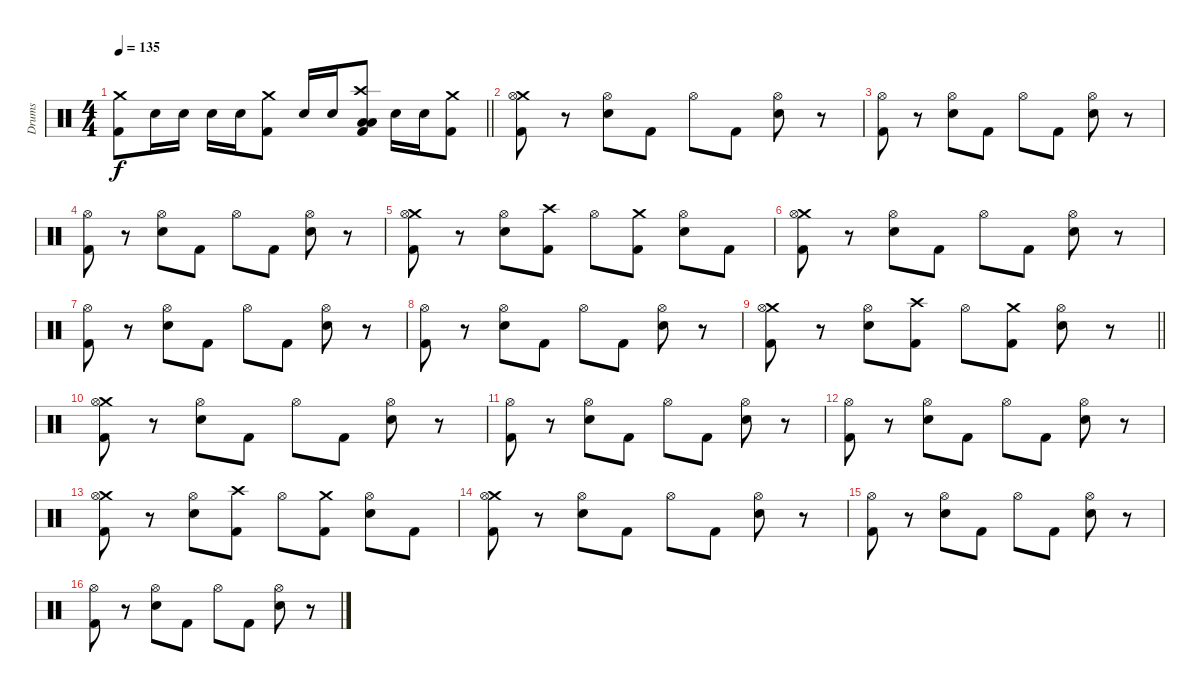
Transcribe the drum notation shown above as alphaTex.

\track ("Drums" "Drums") {instrument percussion}
\staff {score}
\articulation defaults
\ts (4 4)
\tempo 135
\clef neutral
\barLineRight lightlight
\ks c
("Crash medium (hit)" "Kick (hit) 2").8{dy f} "Electric Snare (hit)".16 "Electric Snare (hit)".16 "Electric Snare (hit)".16 "Electric Snare (hit)".16 ("Crash medium (hit)" "Kick (hit) 2").8 "Electric Snare (hit)".16 "Electric Snare (hit)".16 ("Crash high (hit)" "Kick (hit) 2" "Low Tom (hit)" "Low Floor Tom (hit)").8 "Electric Snare (hit)".16 "Electric Snare (hit)".16 ("Crash medium (hit)" "Kick (hit) 2").8 |
\section ("" "")
("Crash medium (hit)" "Hi-Hat (open)" "Kick (hit) 2").8 r.8 ("Hi-Hat (open)" "Electric Snare (hit)").8 "Kick (hit) 2".8 "Hi-Hat (open)".8 "Kick (hit) 2".8 ("Hi-Hat (open)" "Electric Snare (hit)").8 r.8 |
("Hi-Hat (open)" "Kick (hit) 2").8 r.8 ("Hi-Hat (open)" "Electric Snare (hit)").8 "Kick (hit) 2".8 "Hi-Hat (open)".8 "Kick (hit) 2".8 ("Hi-Hat (open)" "Electric Snare (hit)").8 r.8 |
("Hi-Hat (open)" "Kick (hit) 2").8 r.8 ("Hi-Hat (open)" "Electric Snare (hit)").8 "Kick (hit) 2".8 "Hi-Hat (open)".8 "Kick (hit) 2".8 ("Hi-Hat (open)" "Electric Snare (hit)").8 r.8 |
("Crash medium (hit)" "Hi-Hat (open)" "Kick (hit) 2").8 r.8 ("Hi-Hat (open)" "Electric Snare (hit)").8 ("Crash high (hit)" "Kick (hit) 2").8 "Hi-Hat (open)".8 ("Crash medium (hit)" "Kick (hit) 2").8 ("Hi-Hat (open)" "Electric Snare (hit)").8 "Kick (hit) 2".8 |
("Crash medium (hit)" "Hi-Hat (open)" "Kick (hit) 2").8 r.8 ("Hi-Hat (open)" "Electric Snare (hit)").8 "Kick (hit) 2".8 "Hi-Hat (open)".8 "Kick (hit) 2".8 ("Hi-Hat (open)" "Electric Snare (hit)").8 r.8 |
("Hi-Hat (open)" "Kick (hit) 2").8 r.8 ("Hi-Hat (open)" "Electric Snare (hit)").8 "Kick (hit) 2".8 "Hi-Hat (open)".8 "Kick (hit) 2".8 ("Hi-Hat (open)" "Electric Snare (hit)").8 r.8 |
("Hi-Hat (open)" "Kick (hit) 2").8 r.8 ("Hi-Hat (open)" "Electric Snare (hit)").8 "Kick (hit) 2".8 "Hi-Hat (open)".8 "Kick (hit) 2".8 ("Hi-Hat (open)" "Electric Snare (hit)").8 r.8 |
\barLineRight lightlight
("Crash medium (hit)" "Hi-Hat (open)" "Kick (hit) 2").8 r.8 ("Hi-Hat (open)" "Electric Snare (hit)").8 ("Crash high (hit)" "Kick (hit) 2").8 "Hi-Hat (open)".8 ("Crash medium (hit)" "Kick (hit) 2").8 ("Hi-Hat (open)" "Electric Snare (hit)").8 r.8 |
\section ("" "")
("Crash medium (hit)" "Hi-Hat (open)" "Kick (hit) 2").8 r.8 ("Hi-Hat (open)" "Electric Snare (hit)").8 "Kick (hit) 2".8 "Hi-Hat (open)".8 "Kick (hit) 2".8 ("Hi-Hat (open)" "Electric Snare (hit)").8 r.8 |
("Hi-Hat (open)" "Kick (hit) 2").8 r.8 ("Hi-Hat (open)" "Electric Snare (hit)").8 "Kick (hit) 2".8 "Hi-Hat (open)".8 "Kick (hit) 2".8 ("Hi-Hat (open)" "Electric Snare (hit)").8 r.8 |
("Hi-Hat (open)" "Kick (hit) 2").8 r.8 ("Hi-Hat (open)" "Electric Snare (hit)").8 "Kick (hit) 2".8 "Hi-Hat (open)".8 "Kick (hit) 2".8 ("Hi-Hat (open)" "Electric Snare (hit)").8 r.8 |
("Crash medium (hit)" "Hi-Hat (open)" "Kick (hit) 2").8 r.8 ("Hi-Hat (open)" "Electric Snare (hit)").8 ("Crash high (hit)" "Kick (hit) 2").8 "Hi-Hat (open)".8 ("Crash medium (hit)" "Kick (hit) 2").8 ("Hi-Hat (open)" "Electric Snare (hit)").8 "Kick (hit) 2".8 |
("Crash medium (hit)" "Hi-Hat (open)" "Kick (hit) 2").8 r.8 ("Hi-Hat (open)" "Electric Snare (hit)").8 "Kick (hit) 2".8 "Hi-Hat (open)".8 "Kick (hit) 2".8 ("Hi-Hat (open)" "Electric Snare (hit)").8 r.8 |
("Hi-Hat (open)" "Kick (hit) 2").8 r.8 ("Hi-Hat (open)" "Electric Snare (hit)").8 "Kick (hit) 2".8 "Hi-Hat (open)".8 "Kick (hit) 2".8 ("Hi-Hat (open)" "Electric Snare (hit)").8 r.8 |
("Hi-Hat (open)" "Kick (hit) 2").8 r.8 ("Hi-Hat (open)" "Electric Snare (hit)").8 "Kick (hit) 2".8 "Hi-Hat (open)".8 "Kick (hit) 2".8 ("Hi-Hat (open)" "Electric Snare (hit)").8 r.8
